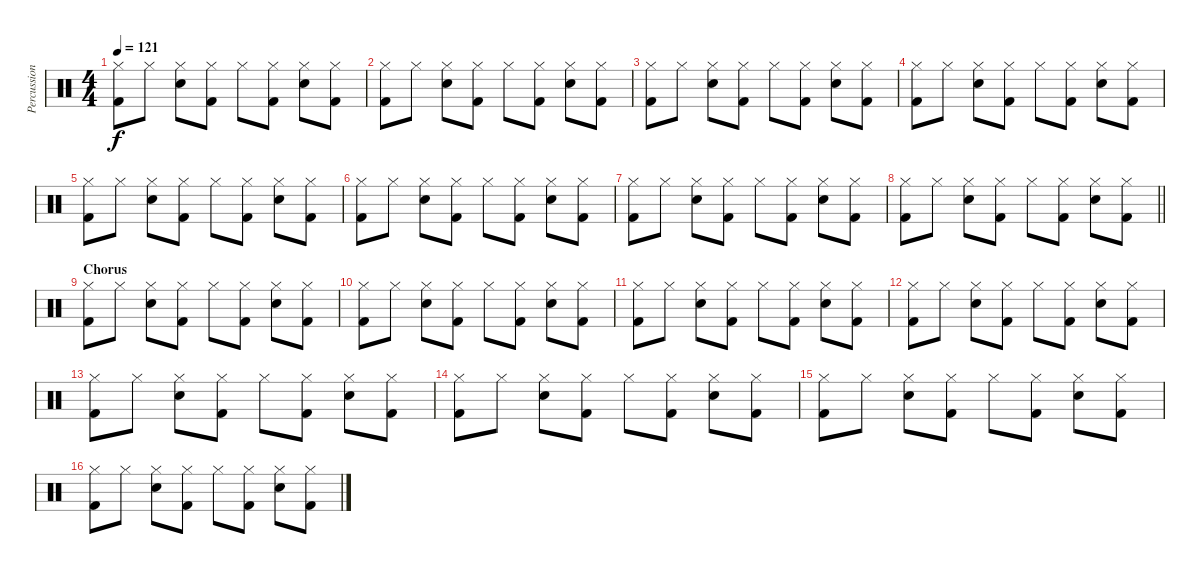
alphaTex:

\track ("Percussion" "Percussion") {instrument percussion}
\staff {score}
\articulation defaults
\ts (4 4)
\tempo 121
\clef neutral
\ks c
("Hi-Hat (closed)" "Kick (hit) 2").8{dy f} "Hi-Hat (closed)".8 ("Hi-Hat (closed)" "Snare (hit) 2").8 ("Hi-Hat (closed)" "Kick (hit) 2").8 "Hi-Hat (closed)".8 ("Hi-Hat (closed)" "Kick (hit) 2").8 ("Hi-Hat (closed)" "Snare (hit) 2").8 ("Hi-Hat (closed)" "Kick (hit) 2").8 |
("Hi-Hat (closed)" "Kick (hit) 2").8 "Hi-Hat (closed)".8 ("Hi-Hat (closed)" "Snare (hit) 2").8 ("Hi-Hat (closed)" "Kick (hit) 2").8 "Hi-Hat (closed)".8 ("Hi-Hat (closed)" "Kick (hit) 2").8 ("Hi-Hat (closed)" "Snare (hit) 2").8 ("Hi-Hat (closed)" "Kick (hit) 2").8 |
("Hi-Hat (closed)" "Kick (hit) 2").8 "Hi-Hat (closed)".8 ("Hi-Hat (closed)" "Snare (hit) 2").8 ("Hi-Hat (closed)" "Kick (hit) 2").8 "Hi-Hat (closed)".8 ("Hi-Hat (closed)" "Kick (hit) 2").8 ("Hi-Hat (closed)" "Snare (hit) 2").8 ("Hi-Hat (closed)" "Kick (hit) 2").8 |
("Hi-Hat (closed)" "Kick (hit) 2").8 "Hi-Hat (closed)".8 ("Hi-Hat (closed)" "Snare (hit) 2").8 ("Hi-Hat (closed)" "Kick (hit) 2").8 "Hi-Hat (closed)".8 ("Hi-Hat (closed)" "Kick (hit) 2").8 ("Hi-Hat (closed)" "Snare (hit) 2").8 ("Hi-Hat (closed)" "Kick (hit) 2").8 |
("Hi-Hat (closed)" "Kick (hit) 2").8 "Hi-Hat (closed)".8 ("Hi-Hat (closed)" "Snare (hit) 2").8 ("Hi-Hat (closed)" "Kick (hit) 2").8 "Hi-Hat (closed)".8 ("Hi-Hat (closed)" "Kick (hit) 2").8 ("Hi-Hat (closed)" "Snare (hit) 2").8 ("Hi-Hat (closed)" "Kick (hit) 2").8 |
("Hi-Hat (closed)" "Kick (hit) 2").8 "Hi-Hat (closed)".8 ("Hi-Hat (closed)" "Snare (hit) 2").8 ("Hi-Hat (closed)" "Kick (hit) 2").8 "Hi-Hat (closed)".8 ("Hi-Hat (closed)" "Kick (hit) 2").8 ("Hi-Hat (closed)" "Snare (hit) 2").8 ("Hi-Hat (closed)" "Kick (hit) 2").8 |
("Hi-Hat (closed)" "Kick (hit) 2").8 "Hi-Hat (closed)".8 ("Hi-Hat (closed)" "Snare (hit) 2").8 ("Hi-Hat (closed)" "Kick (hit) 2").8 "Hi-Hat (closed)".8 ("Hi-Hat (closed)" "Kick (hit) 2").8 ("Hi-Hat (closed)" "Snare (hit) 2").8 ("Hi-Hat (closed)" "Kick (hit) 2").8 |
\barLineRight lightlight
("Hi-Hat (closed)" "Kick (hit) 2").8 "Hi-Hat (closed)".8 ("Hi-Hat (closed)" "Snare (hit) 2").8 ("Hi-Hat (closed)" "Kick (hit) 2").8 "Hi-Hat (closed)".8 ("Hi-Hat (closed)" "Kick (hit) 2").8 ("Hi-Hat (closed)" "Snare (hit) 2").8 ("Hi-Hat (closed)" "Kick (hit) 2").8 |
\section ("" "Chorus")
("Hi-Hat (closed)" "Kick (hit) 2").8 "Hi-Hat (closed)".8 ("Hi-Hat (closed)" "Snare (hit) 2").8 ("Hi-Hat (closed)" "Kick (hit) 2").8 "Hi-Hat (closed)".8 ("Hi-Hat (closed)" "Kick (hit) 2").8 ("Hi-Hat (closed)" "Snare (hit) 2").8 ("Hi-Hat (closed)" "Kick (hit) 2").8 |
("Hi-Hat (closed)" "Kick (hit) 2").8 "Hi-Hat (closed)".8 ("Hi-Hat (closed)" "Snare (hit) 2").8 ("Hi-Hat (closed)" "Kick (hit) 2").8 "Hi-Hat (closed)".8 ("Hi-Hat (closed)" "Kick (hit) 2").8 ("Hi-Hat (closed)" "Snare (hit) 2").8 ("Hi-Hat (closed)" "Kick (hit) 2").8 |
("Hi-Hat (closed)" "Kick (hit) 2").8 "Hi-Hat (closed)".8 ("Hi-Hat (closed)" "Snare (hit) 2").8 ("Hi-Hat (closed)" "Kick (hit) 2").8 "Hi-Hat (closed)".8 ("Hi-Hat (closed)" "Kick (hit) 2").8 ("Hi-Hat (closed)" "Snare (hit) 2").8 ("Hi-Hat (closed)" "Kick (hit) 2").8 |
("Hi-Hat (closed)" "Kick (hit) 2").8 "Hi-Hat (closed)".8 ("Hi-Hat (closed)" "Snare (hit) 2").8 ("Hi-Hat (closed)" "Kick (hit) 2").8 "Hi-Hat (closed)".8 ("Hi-Hat (closed)" "Kick (hit) 2").8 ("Hi-Hat (closed)" "Snare (hit) 2").8 ("Hi-Hat (closed)" "Kick (hit) 2").8 |
("Hi-Hat (closed)" "Kick (hit) 2").8 "Hi-Hat (closed)".8 ("Hi-Hat (closed)" "Snare (hit) 2").8 ("Hi-Hat (closed)" "Kick (hit) 2").8 "Hi-Hat (closed)".8 ("Hi-Hat (closed)" "Kick (hit) 2").8 ("Hi-Hat (closed)" "Snare (hit) 2").8 ("Hi-Hat (closed)" "Kick (hit) 2").8 |
("Hi-Hat (closed)" "Kick (hit) 2").8 "Hi-Hat (closed)".8 ("Hi-Hat (closed)" "Snare (hit) 2").8 ("Hi-Hat (closed)" "Kick (hit) 2").8 "Hi-Hat (closed)".8 ("Hi-Hat (closed)" "Kick (hit) 2").8 ("Hi-Hat (closed)" "Snare (hit) 2").8 ("Hi-Hat (closed)" "Kick (hit) 2").8 |
("Hi-Hat (closed)" "Kick (hit) 2").8 "Hi-Hat (closed)".8 ("Hi-Hat (closed)" "Snare (hit) 2").8 ("Hi-Hat (closed)" "Kick (hit) 2").8 "Hi-Hat (closed)".8 ("Hi-Hat (closed)" "Kick (hit) 2").8 ("Hi-Hat (closed)" "Snare (hit) 2").8 ("Hi-Hat (closed)" "Kick (hit) 2").8 |
("Hi-Hat (closed)" "Kick (hit) 2").8 "Hi-Hat (closed)".8 ("Hi-Hat (closed)" "Snare (hit) 2").8 ("Hi-Hat (closed)" "Kick (hit) 2").8 "Hi-Hat (closed)".8 ("Hi-Hat (closed)" "Kick (hit) 2").8 ("Hi-Hat (closed)" "Snare (hit) 2").8 ("Hi-Hat (closed)" "Kick (hit) 2").8
